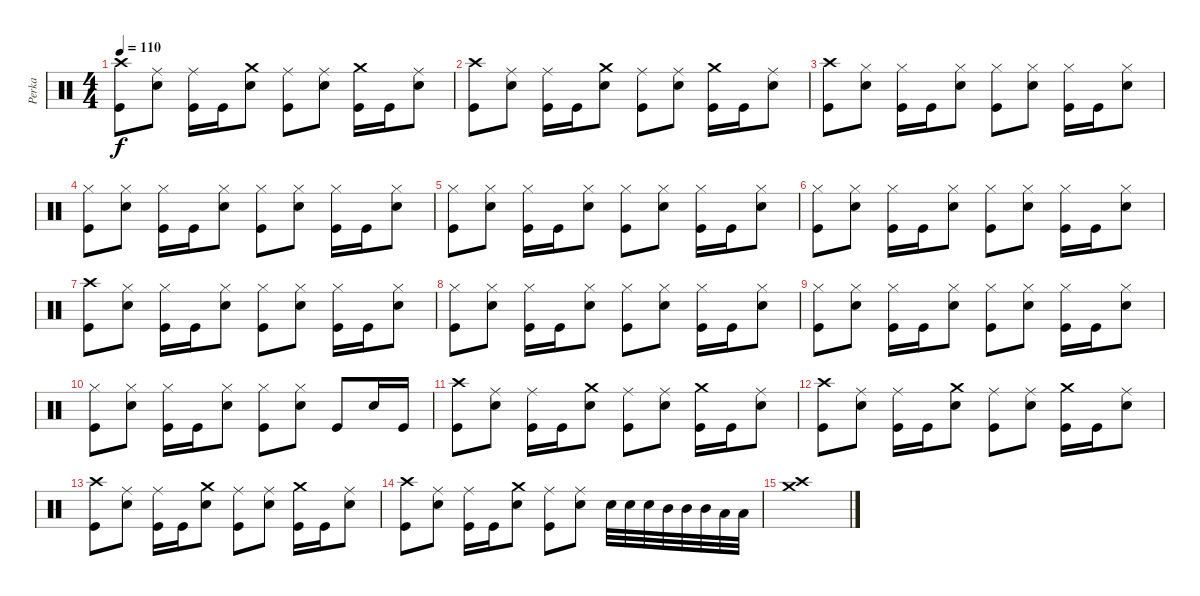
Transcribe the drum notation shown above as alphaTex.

\track ("Perka" "Perka") {instrument percussion}
\staff {score}
\articulation defaults
\ts (4 4)
\tempo 110
\clef neutral
\ks c
("Crash high (hit)" "Kick (hit)").8{dy f} ("Ride (middle)" "Snare (hit) 2").8 ("Ride (middle)" "Kick (hit)").16 "Kick (hit)".16 ("Crash medium (hit)" "Snare (hit) 2").8 ("Ride (middle)" "Kick (hit)").8 ("Ride (middle)" "Snare (hit) 2").8 ("Crash medium (hit)" "Kick (hit)").16 "Kick (hit)".16 ("Ride (middle)" "Snare (hit) 2").8 |
("Crash high (hit)" "Kick (hit)").8 ("Ride (middle)" "Snare (hit) 2").8 ("Ride (middle)" "Kick (hit)").16 "Kick (hit)".16 ("Crash medium (hit)" "Snare (hit) 2").8 ("Ride (middle)" "Kick (hit)").8 ("Ride (middle)" "Snare (hit) 2").8 ("Crash medium (hit)" "Kick (hit)").16 "Kick (hit)".16 ("Ride (middle)" "Snare (hit) 2").8 |
("Crash high (hit)" "Kick (hit)").8 ("Hi-Hat (closed)" "Snare (hit) 2").8 ("Hi-Hat (closed)" "Kick (hit)").16 "Kick (hit)".16 ("Hi-Hat (closed)" "Snare (hit) 2").8 ("Hi-Hat (closed)" "Kick (hit)").8 ("Hi-Hat (closed)" "Snare (hit) 2").8 ("Hi-Hat (closed)" "Kick (hit)").16 "Kick (hit)".16 ("Hi-Hat (closed)" "Snare (hit) 2").8 |
("Hi-Hat (closed)" "Kick (hit)").8 ("Hi-Hat (closed)" "Snare (hit) 2").8 ("Hi-Hat (closed)" "Kick (hit)").16 "Kick (hit)".16 ("Hi-Hat (closed)" "Snare (hit) 2").8 ("Hi-Hat (closed)" "Kick (hit)").8 ("Hi-Hat (closed)" "Snare (hit) 2").8 ("Hi-Hat (closed)" "Kick (hit)").16 "Kick (hit)".16 ("Hi-Hat (closed)" "Snare (hit) 2").8 |
("Hi-Hat (closed)" "Kick (hit)").8 ("Hi-Hat (closed)" "Snare (hit) 2").8 ("Hi-Hat (closed)" "Kick (hit)").16 "Kick (hit)".16 ("Hi-Hat (closed)" "Snare (hit) 2").8 ("Hi-Hat (closed)" "Kick (hit)").8 ("Hi-Hat (closed)" "Snare (hit) 2").8 ("Hi-Hat (closed)" "Kick (hit)").16 "Kick (hit)".16 ("Hi-Hat (closed)" "Snare (hit) 2").8 |
("Hi-Hat (closed)" "Kick (hit)").8 ("Hi-Hat (closed)" "Snare (hit) 2").8 ("Hi-Hat (closed)" "Kick (hit)").16 "Kick (hit)".16 ("Hi-Hat (closed)" "Snare (hit) 2").8 ("Hi-Hat (closed)" "Kick (hit)").8 ("Hi-Hat (closed)" "Snare (hit) 2").8 ("Hi-Hat (closed)" "Kick (hit)").16 "Kick (hit)".16 ("Hi-Hat (closed)" "Snare (hit) 2").8 |
("Crash high (hit)" "Kick (hit)").8 ("Hi-Hat (closed)" "Snare (hit) 2").8 ("Hi-Hat (closed)" "Kick (hit)").16 "Kick (hit)".16 ("Hi-Hat (closed)" "Snare (hit) 2").8 ("Hi-Hat (closed)" "Kick (hit)").8 ("Hi-Hat (closed)" "Snare (hit) 2").8 ("Hi-Hat (closed)" "Kick (hit)").16 "Kick (hit)".16 ("Hi-Hat (closed)" "Snare (hit) 2").8 |
("Hi-Hat (closed)" "Kick (hit)").8 ("Hi-Hat (closed)" "Snare (hit) 2").8 ("Hi-Hat (closed)" "Kick (hit)").16 "Kick (hit)".16 ("Hi-Hat (closed)" "Snare (hit) 2").8 ("Hi-Hat (closed)" "Kick (hit)").8 ("Hi-Hat (closed)" "Snare (hit) 2").8 ("Hi-Hat (closed)" "Kick (hit)").16 "Kick (hit)".16 ("Hi-Hat (closed)" "Snare (hit) 2").8 |
("Hi-Hat (closed)" "Kick (hit)").8 ("Hi-Hat (closed)" "Snare (hit) 2").8 ("Hi-Hat (closed)" "Kick (hit)").16 "Kick (hit)".16 ("Hi-Hat (closed)" "Snare (hit) 2").8 ("Hi-Hat (closed)" "Kick (hit)").8 ("Hi-Hat (closed)" "Snare (hit) 2").8 ("Hi-Hat (closed)" "Kick (hit)").16 "Kick (hit)".16 ("Hi-Hat (closed)" "Snare (hit) 2").8 |
("Hi-Hat (closed)" "Kick (hit)").8 ("Hi-Hat (closed)" "Snare (hit) 2").8 ("Hi-Hat (closed)" "Kick (hit)").16 "Kick (hit)".16 ("Hi-Hat (closed)" "Snare (hit) 2").8 ("Hi-Hat (closed)" "Kick (hit)").8 ("Hi-Hat (closed)" "Snare (hit) 2").8 "Kick (hit)".8 "Snare (hit) 2".16 "Kick (hit)".16 |
("Crash high (hit)" "Kick (hit)").8 ("Ride (middle)" "Snare (hit) 2").8 ("Ride (middle)" "Kick (hit)").16 "Kick (hit)".16 ("Crash medium (hit)" "Snare (hit) 2").8 ("Ride (middle)" "Kick (hit)").8 ("Ride (middle)" "Snare (hit) 2").8 ("Crash medium (hit)" "Kick (hit)").16 "Kick (hit)".16 ("Ride (middle)" "Snare (hit) 2").8 |
("Crash high (hit)" "Kick (hit)").8 ("Ride (middle)" "Snare (hit) 2").8 ("Ride (middle)" "Kick (hit)").16 "Kick (hit)".16 ("Crash medium (hit)" "Snare (hit) 2").8 ("Ride (middle)" "Kick (hit)").8 ("Ride (middle)" "Snare (hit) 2").8 ("Crash medium (hit)" "Kick (hit)").16 "Kick (hit)".16 ("Ride (middle)" "Snare (hit) 2").8 |
("Crash high (hit)" "Kick (hit)").8 ("Ride (middle)" "Snare (hit) 2").8 ("Ride (middle)" "Kick (hit)").16 "Kick (hit)".16 ("Crash medium (hit)" "Snare (hit) 2").8 ("Ride (middle)" "Kick (hit)").8 ("Ride (middle)" "Snare (hit) 2").8 ("Crash medium (hit)" "Kick (hit)").16 "Kick (hit)".16 ("Ride (middle)" "Snare (hit) 2").8 |
("Crash high (hit)" "Kick (hit)").8 ("Ride (middle)" "Snare (hit) 2").8 ("Ride (middle)" "Kick (hit)").16 "Kick (hit)".16 ("Crash medium (hit)" "Snare (hit) 2").8 ("Ride (middle)" "Kick (hit)").8 ("Ride (middle)" "Snare (hit) 2").8 "Snare (hit) 2".32 "Snare (hit) 2".32 "Snare (hit) 2".32 "Mid Tom (hit)".32 "Mid Tom (hit)".32 "Mid Tom (hit)".32 "Low Tom (hit)".32 "Low Tom (hit)".32 |
("Crash high (hit)" "Crash medium (hit)").1
